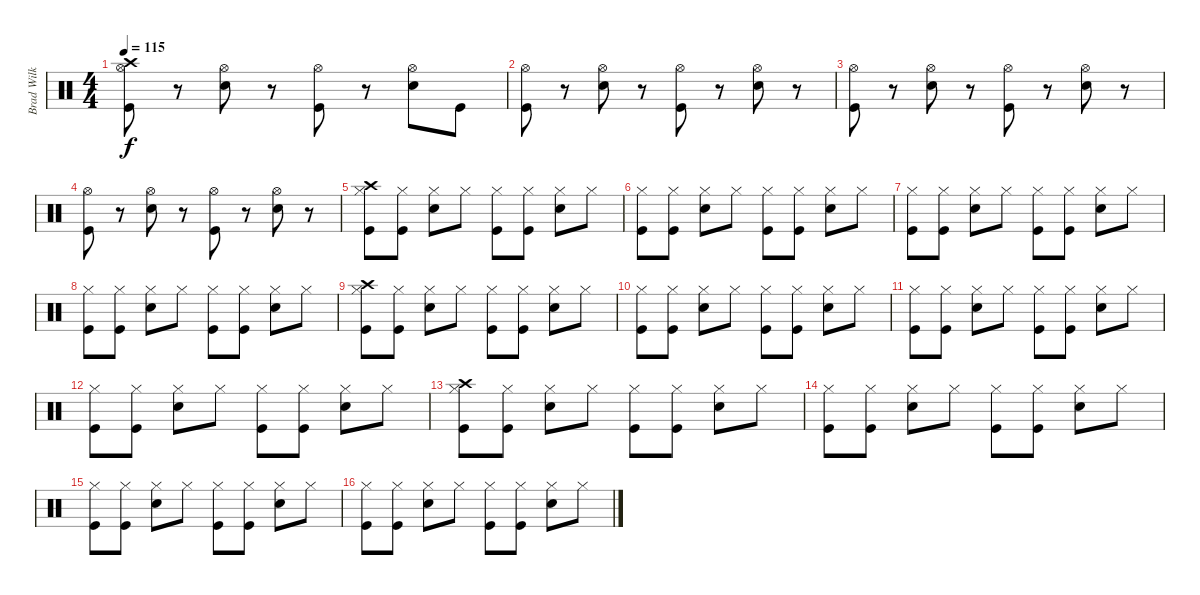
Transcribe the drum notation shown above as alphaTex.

\track ("Brad Wilk - Drums" "Brad Wilk ") {instrument percussion}
\staff {score}
\articulation defaults
\ts (4 4)
\tempo 115
\clef neutral
\ks c
("Crash high (hit)" "Hi-Hat (open)" "Kick (hit)").8{dy f} r.8 ("Snare (hit) 2" "Hi-Hat (open)").8 r.8 ("Hi-Hat (open)" "Kick (hit)").8 r.8 ("Snare (hit) 2" "Hi-Hat (open)").8 "Kick (hit)".8 |
("Hi-Hat (open)" "Kick (hit)").8 r.8 ("Snare (hit) 2" "Hi-Hat (open)").8 r.8 ("Hi-Hat (open)" "Kick (hit)").8 r.8 ("Snare (hit) 2" "Hi-Hat (open)").8 r.8 |
("Hi-Hat (open)" "Kick (hit)").8 r.8 ("Snare (hit) 2" "Hi-Hat (open)").8 r.8 ("Hi-Hat (open)" "Kick (hit)").8 r.8 ("Snare (hit) 2" "Hi-Hat (open)").8 r.8 |
("Hi-Hat (open)" "Kick (hit)").8 r.8 ("Snare (hit) 2" "Hi-Hat (open)").8 r.8 ("Hi-Hat (open)" "Kick (hit)").8 r.8 ("Snare (hit) 2" "Hi-Hat (open)").8 r.8 |
("Crash high (hit)" "Hi-Hat (closed)" "Kick (hit)").8 ("Hi-Hat (closed)" "Kick (hit)").8 ("Snare (hit) 2" "Hi-Hat (closed)").8 "Hi-Hat (closed)".8 ("Hi-Hat (closed)" "Kick (hit)").8 ("Hi-Hat (closed)" "Kick (hit)").8 ("Snare (hit) 2" "Hi-Hat (closed)").8 "Hi-Hat (closed)".8 |
("Hi-Hat (closed)" "Kick (hit)").8 ("Hi-Hat (closed)" "Kick (hit)").8 ("Snare (hit) 2" "Hi-Hat (closed)").8 "Hi-Hat (closed)".8 ("Hi-Hat (closed)" "Kick (hit)").8 ("Hi-Hat (closed)" "Kick (hit)").8 ("Snare (hit) 2" "Hi-Hat (closed)").8 "Hi-Hat (closed)".8 |
("Hi-Hat (closed)" "Kick (hit)").8 ("Hi-Hat (closed)" "Kick (hit)").8 ("Snare (hit) 2" "Hi-Hat (closed)").8 "Hi-Hat (closed)".8 ("Hi-Hat (closed)" "Kick (hit)").8 ("Hi-Hat (closed)" "Kick (hit)").8 ("Snare (hit) 2" "Hi-Hat (closed)").8 "Hi-Hat (closed)".8 |
("Hi-Hat (closed)" "Kick (hit)").8 ("Hi-Hat (closed)" "Kick (hit)").8 ("Snare (hit) 2" "Hi-Hat (closed)").8 "Hi-Hat (closed)".8 ("Hi-Hat (closed)" "Kick (hit)").8 ("Hi-Hat (closed)" "Kick (hit)").8 ("Snare (hit) 2" "Hi-Hat (closed)").8 "Hi-Hat (closed)".8 |
("Crash high (hit)" "Hi-Hat (closed)" "Kick (hit)").8 ("Hi-Hat (closed)" "Kick (hit)").8 ("Snare (hit) 2" "Hi-Hat (closed)").8 "Hi-Hat (closed)".8 ("Hi-Hat (closed)" "Kick (hit)").8 ("Hi-Hat (closed)" "Kick (hit)").8 ("Snare (hit) 2" "Hi-Hat (closed)").8 "Hi-Hat (closed)".8 |
("Hi-Hat (closed)" "Kick (hit)").8 ("Hi-Hat (closed)" "Kick (hit)").8 ("Snare (hit) 2" "Hi-Hat (closed)").8 "Hi-Hat (closed)".8 ("Hi-Hat (closed)" "Kick (hit)").8 ("Hi-Hat (closed)" "Kick (hit)").8 ("Snare (hit) 2" "Hi-Hat (closed)").8 "Hi-Hat (closed)".8 |
("Hi-Hat (closed)" "Kick (hit)").8 ("Hi-Hat (closed)" "Kick (hit)").8 ("Snare (hit) 2" "Hi-Hat (closed)").8 "Hi-Hat (closed)".8 ("Hi-Hat (closed)" "Kick (hit)").8 ("Hi-Hat (closed)" "Kick (hit)").8 ("Snare (hit) 2" "Hi-Hat (closed)").8 "Hi-Hat (closed)".8 |
("Hi-Hat (closed)" "Kick (hit)").8 ("Hi-Hat (closed)" "Kick (hit)").8 ("Snare (hit) 2" "Hi-Hat (closed)").8 "Hi-Hat (closed)".8 ("Hi-Hat (closed)" "Kick (hit)").8 ("Hi-Hat (closed)" "Kick (hit)").8 ("Snare (hit) 2" "Hi-Hat (closed)").8 "Hi-Hat (closed)".8 |
("Crash high (hit)" "Hi-Hat (closed)" "Kick (hit)").8 ("Hi-Hat (closed)" "Kick (hit)").8 ("Snare (hit) 2" "Hi-Hat (closed)").8 "Hi-Hat (closed)".8 ("Hi-Hat (closed)" "Kick (hit)").8 ("Hi-Hat (closed)" "Kick (hit)").8 ("Snare (hit) 2" "Hi-Hat (closed)").8 "Hi-Hat (closed)".8 |
("Hi-Hat (closed)" "Kick (hit)").8 ("Hi-Hat (closed)" "Kick (hit)").8 ("Snare (hit) 2" "Hi-Hat (closed)").8 "Hi-Hat (closed)".8 ("Hi-Hat (closed)" "Kick (hit)").8 ("Hi-Hat (closed)" "Kick (hit)").8 ("Snare (hit) 2" "Hi-Hat (closed)").8 "Hi-Hat (closed)".8 |
("Hi-Hat (closed)" "Kick (hit)").8 ("Hi-Hat (closed)" "Kick (hit)").8 ("Snare (hit) 2" "Hi-Hat (closed)").8 "Hi-Hat (closed)".8 ("Hi-Hat (closed)" "Kick (hit)").8 ("Hi-Hat (closed)" "Kick (hit)").8 ("Snare (hit) 2" "Hi-Hat (closed)").8 "Hi-Hat (closed)".8 |
("Hi-Hat (closed)" "Kick (hit)").8 ("Hi-Hat (closed)" "Kick (hit)").8 ("Snare (hit) 2" "Hi-Hat (closed)").8 "Hi-Hat (closed)".8 ("Hi-Hat (closed)" "Kick (hit)").8 ("Hi-Hat (closed)" "Kick (hit)").8 ("Snare (hit) 2" "Hi-Hat (closed)").8 "Hi-Hat (closed)".8
